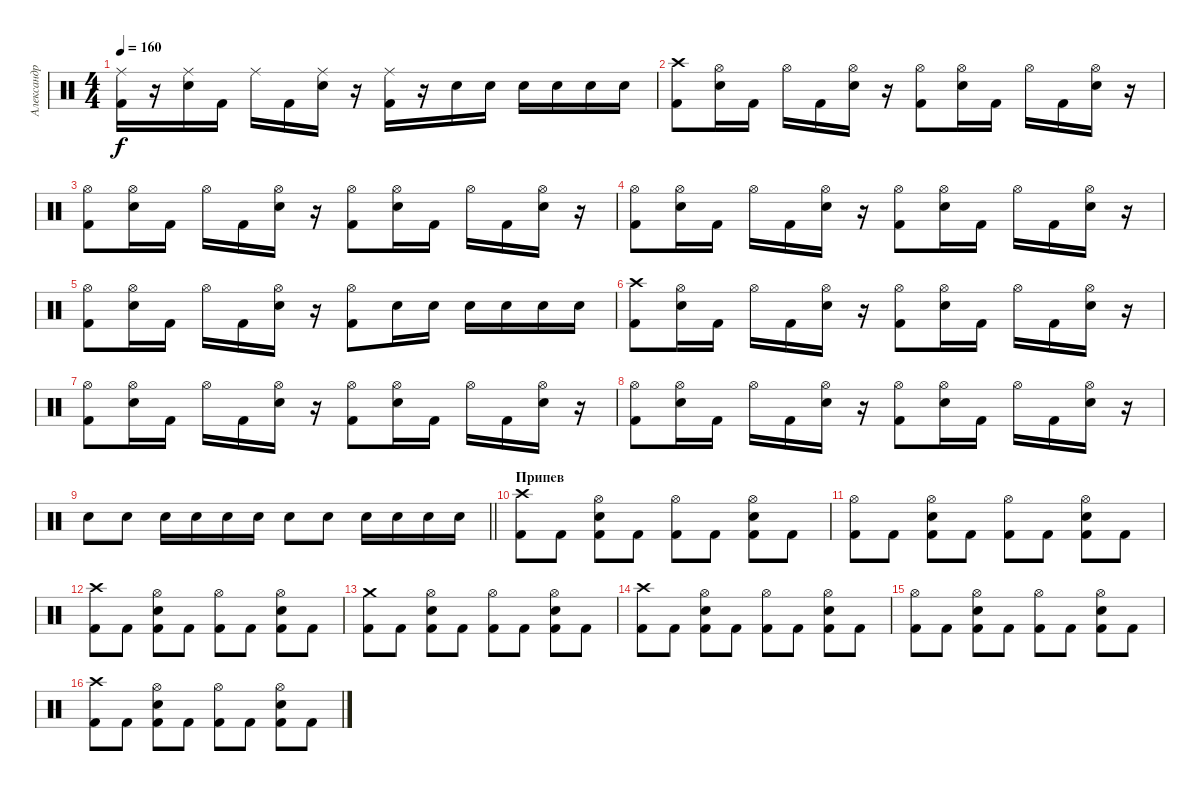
\track ("Александр Карпухин" "Александр ") {instrument percussion}
\staff {score}
\articulation defaults
\ts (4 4)
\tempo 160
\clef neutral
\ks c
("Ride (middle)" "Kick (hit) 2").16{dy f} r.16 ("Ride (middle)" "Electric Snare (hit)").16 "Kick (hit) 2".16 "Ride (middle)".16 "Kick (hit) 2".16 ("Ride (middle)" "Electric Snare (hit)").16 r.16 ("Ride (middle)" "Kick (hit) 2").16 r.16 "Electric Snare (hit)".16 "Electric Snare (hit)".16 "Electric Snare (hit)".16 "Electric Snare (hit)".16 "Electric Snare (hit)".16 "Electric Snare (hit)".16 |
("Crash high (hit)" "Kick (hit) 2").8 ("Hi-Hat (open)" "Electric Snare (hit)").16 "Kick (hit) 2".16 "Hi-Hat (open)".16 "Kick (hit) 2".16 ("Hi-Hat (open)" "Electric Snare (hit)").16 r.16 ("Hi-Hat (open)" "Kick (hit) 2").8 ("Hi-Hat (open)" "Electric Snare (hit)").16 "Kick (hit) 2".16 "Hi-Hat (open)".16 "Kick (hit) 2".16 ("Hi-Hat (open)" "Electric Snare (hit)").16 r.16 |
("Hi-Hat (open)" "Kick (hit) 2").8 ("Hi-Hat (open)" "Electric Snare (hit)").16 "Kick (hit) 2".16 "Hi-Hat (open)".16 "Kick (hit) 2".16 ("Hi-Hat (open)" "Electric Snare (hit)").16 r.16 ("Hi-Hat (open)" "Kick (hit) 2").8 ("Hi-Hat (open)" "Electric Snare (hit)").16 "Kick (hit) 2".16 "Hi-Hat (open)".16 "Kick (hit) 2".16 ("Hi-Hat (open)" "Electric Snare (hit)").16 r.16 |
("Hi-Hat (open)" "Kick (hit) 2").8 ("Hi-Hat (open)" "Electric Snare (hit)").16 "Kick (hit) 2".16 "Hi-Hat (open)".16 "Kick (hit) 2".16 ("Hi-Hat (open)" "Electric Snare (hit)").16 r.16 ("Hi-Hat (open)" "Kick (hit) 2").8 ("Hi-Hat (open)" "Electric Snare (hit)").16 "Kick (hit) 2".16 "Hi-Hat (open)".16 "Kick (hit) 2".16 ("Hi-Hat (open)" "Electric Snare (hit)").16 r.16 |
("Hi-Hat (open)" "Kick (hit) 2").8 ("Hi-Hat (open)" "Electric Snare (hit)").16 "Kick (hit) 2".16 "Hi-Hat (open)".16 "Kick (hit) 2".16 ("Hi-Hat (open)" "Electric Snare (hit)").16 r.16 ("Hi-Hat (open)" "Kick (hit) 2").8 "Electric Snare (hit)".16 "Electric Snare (hit)".16 "Electric Snare (hit)".16 "Electric Snare (hit)".16 "Electric Snare (hit)".16 "Electric Snare (hit)".16 |
("Crash high (hit)" "Kick (hit) 2").8 ("Hi-Hat (open)" "Electric Snare (hit)").16 "Kick (hit) 2".16 "Hi-Hat (open)".16 "Kick (hit) 2".16 ("Hi-Hat (open)" "Electric Snare (hit)").16 r.16 ("Hi-Hat (open)" "Kick (hit) 2").8 ("Hi-Hat (open)" "Electric Snare (hit)").16 "Kick (hit) 2".16 "Hi-Hat (open)".16 "Kick (hit) 2".16 ("Hi-Hat (open)" "Electric Snare (hit)").16 r.16 |
("Hi-Hat (open)" "Kick (hit) 2").8 ("Hi-Hat (open)" "Electric Snare (hit)").16 "Kick (hit) 2".16 "Hi-Hat (open)".16 "Kick (hit) 2".16 ("Hi-Hat (open)" "Electric Snare (hit)").16 r.16 ("Hi-Hat (open)" "Kick (hit) 2").8 ("Hi-Hat (open)" "Electric Snare (hit)").16 "Kick (hit) 2".16 "Hi-Hat (open)".16 "Kick (hit) 2".16 ("Hi-Hat (open)" "Electric Snare (hit)").16 r.16 |
("Hi-Hat (open)" "Kick (hit) 2").8 ("Hi-Hat (open)" "Electric Snare (hit)").16 "Kick (hit) 2".16 "Hi-Hat (open)".16 "Kick (hit) 2".16 ("Hi-Hat (open)" "Electric Snare (hit)").16 r.16 ("Hi-Hat (open)" "Kick (hit) 2").8 ("Hi-Hat (open)" "Electric Snare (hit)").16 "Kick (hit) 2".16 "Hi-Hat (open)".16 "Kick (hit) 2".16 ("Hi-Hat (open)" "Electric Snare (hit)").16 r.16 |
\barLineRight lightlight "Electric Snare (hit)".8 "Electric Snare (hit)".8 "Electric Snare (hit)".16 "Electric Snare (hit)".16 "Electric Snare (hit)".16 "Electric Snare (hit)".16 "Electric Snare (hit)".8 "Electric Snare (hit)".8 "Electric Snare (hit)".16 "Electric Snare (hit)".16 "Electric Snare (hit)".16 "Electric Snare (hit)".16
|
\section ("" "Припев ")
("Crash high (hit)" "Kick (hit) 2").8 "Kick (hit) 2".8 ("Hi-Hat (open)" "Electric Snare (hit)" "Kick (hit) 2").8 "Kick (hit) 2".8 ("Hi-Hat (open)" "Kick (hit) 2").8 "Kick (hit) 2".8 ("Hi-Hat (open)" "Electric Snare (hit)" "Kick (hit) 2").8 "Kick (hit) 2".8 |
("Hi-Hat (open)" "Kick (hit) 2").8 "Kick (hit) 2".8 ("Hi-Hat (open)" "Electric Snare (hit)" "Kick (hit) 2").8 "Kick (hit) 2".8 ("Hi-Hat (open)" "Kick (hit) 2").8 "Kick (hit) 2".8 ("Hi-Hat (open)" "Electric Snare (hit)" "Kick (hit) 2").8 "Kick (hit) 2".8 |
("Crash high (hit)" "Kick (hit) 2").8 "Kick (hit) 2".8 ("Hi-Hat (open)" "Electric Snare (hit)" "Kick (hit) 2").8 "Kick (hit) 2".8 ("Hi-Hat (open)" "Kick (hit) 2").8 "Kick (hit) 2".8 ("Hi-Hat (open)" "Electric Snare (hit)" "Kick (hit) 2").8 "Kick (hit) 2".8 |
("Crash medium (hit)" "Kick (hit) 2").8 "Kick (hit) 2".8 ("Hi-Hat (open)" "Electric Snare (hit)" "Kick (hit) 2").8 "Kick (hit) 2".8 ("Hi-Hat (open)" "Kick (hit) 2").8 "Kick (hit) 2".8 ("Hi-Hat (open)" "Electric Snare (hit)" "Kick (hit) 2").8 "Kick (hit) 2".8 |
("Crash high (hit)" "Kick (hit) 2").8 "Kick (hit) 2".8 ("Hi-Hat (open)" "Electric Snare (hit)" "Kick (hit) 2").8 "Kick (hit) 2".8 ("Hi-Hat (open)" "Kick (hit) 2").8 "Kick (hit) 2".8 ("Hi-Hat (open)" "Electric Snare (hit)" "Kick (hit) 2").8 "Kick (hit) 2".8 |
("Hi-Hat (open)" "Kick (hit) 2").8 "Kick (hit) 2".8 ("Hi-Hat (open)" "Electric Snare (hit)" "Kick (hit) 2").8 "Kick (hit) 2".8 ("Hi-Hat (open)" "Kick (hit) 2").8 "Kick (hit) 2".8 ("Hi-Hat (open)" "Electric Snare (hit)" "Kick (hit) 2").8 "Kick (hit) 2".8 |
("Crash high (hit)" "Kick (hit) 2").8 "Kick (hit) 2".8 ("Hi-Hat (open)" "Electric Snare (hit)" "Kick (hit) 2").8 "Kick (hit) 2".8 ("Hi-Hat (open)" "Kick (hit) 2").8 "Kick (hit) 2".8 ("Hi-Hat (open)" "Electric Snare (hit)" "Kick (hit) 2").8 "Kick (hit) 2".8
